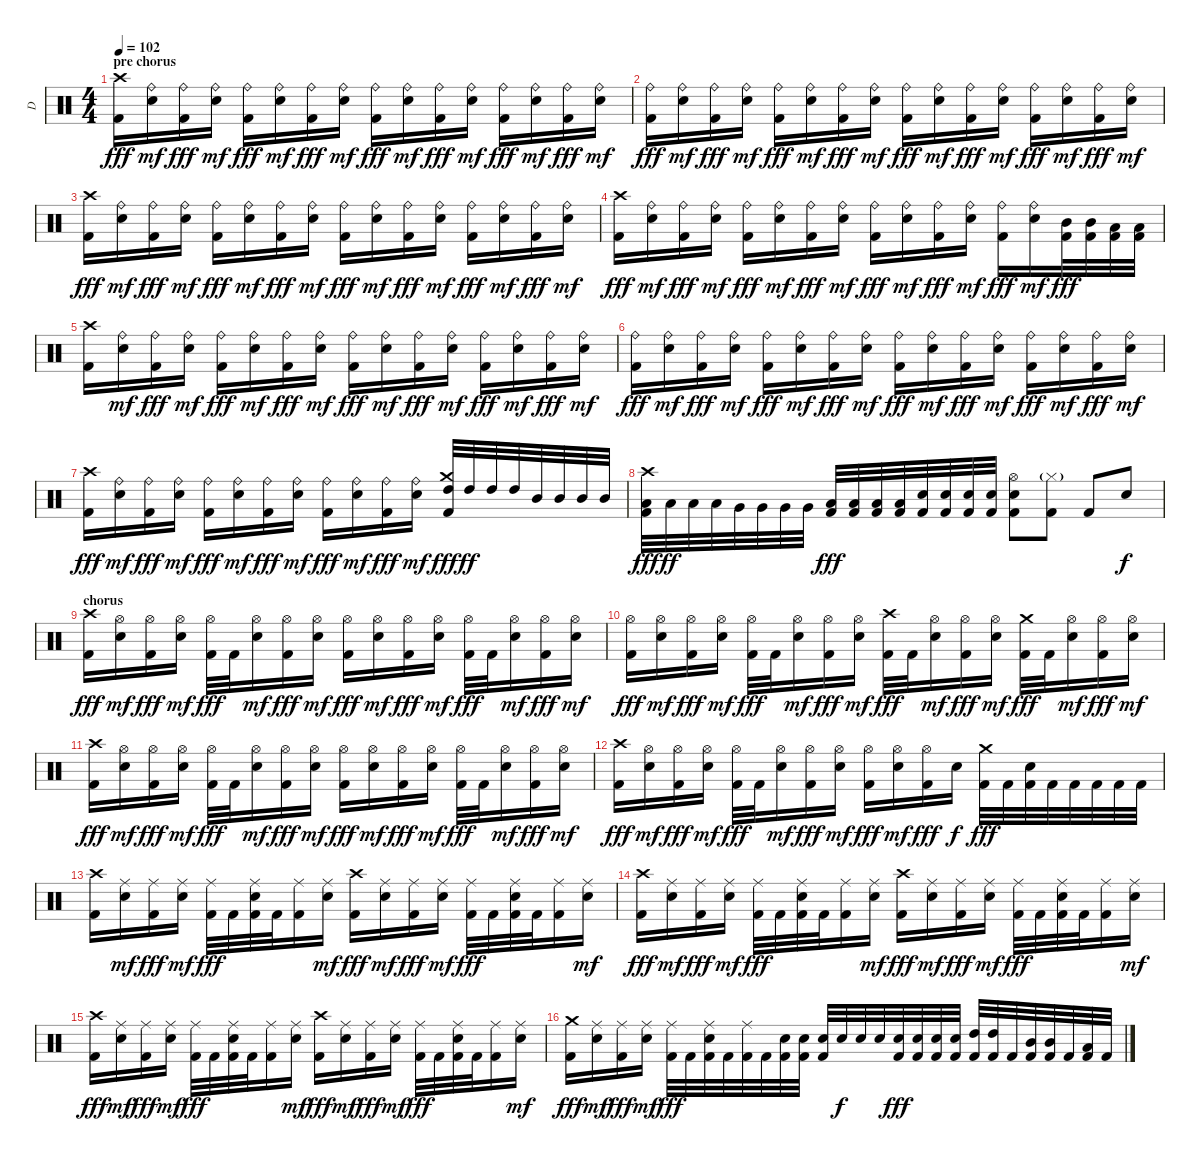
\track ("D" "D") {instrument percussion}
\staff {score}
\articulation defaults
\ts (4 4)
\section ("" "pre chorus")
\tempo 102
\clef neutral
\ks c
("Crash high (hit)" "Kick (hit) 2").16{dy fff} ("Ride (bell)" "Snare (hit) 2").16{dy mf} ("Ride (bell)" "Kick (hit) 2").16{dy fff} ("Ride (bell)" "Snare (hit) 2").16{dy mf} ("Ride (bell)" "Kick (hit) 2").16{dy fff} ("Ride (bell)" "Snare (hit) 2").16{dy mf} ("Ride (bell)" "Kick (hit) 2").16{dy fff} ("Ride (bell)" "Snare (hit) 2").16{dy mf} ("Ride (bell)" "Kick (hit) 2").16{dy fff} ("Ride (bell)" "Snare (hit) 2").16{dy mf} ("Ride (bell)" "Kick (hit) 2").16{dy fff} ("Ride (bell)" "Snare (hit) 2").16{dy mf} ("Ride (bell)" "Kick (hit) 2").16{dy fff} ("Ride (bell)" "Snare (hit) 2").16{dy mf} ("Ride (bell)" "Kick (hit) 2").16{dy fff} ("Ride (bell)" "Snare (hit) 2").16{dy mf} |
("Ride (bell)" "Kick (hit) 2").16{dy fff} ("Ride (bell)" "Snare (hit) 2").16{dy mf} ("Ride (bell)" "Kick (hit) 2").16{dy fff} ("Ride (bell)" "Snare (hit) 2").16{dy mf} ("Ride (bell)" "Kick (hit) 2").16{dy fff} ("Ride (bell)" "Snare (hit) 2").16{dy mf} ("Ride (bell)" "Kick (hit) 2").16{dy fff} ("Ride (bell)" "Snare (hit) 2").16{dy mf} ("Ride (bell)" "Kick (hit) 2").16{dy fff} ("Ride (bell)" "Snare (hit) 2").16{dy mf} ("Ride (bell)" "Kick (hit) 2").16{dy fff} ("Ride (bell)" "Snare (hit) 2").16{dy mf} ("Ride (bell)" "Kick (hit) 2").16{dy fff} ("Ride (bell)" "Snare (hit) 2").16{dy mf} ("Ride (bell)" "Kick (hit) 2").16{dy fff} ("Ride (bell)" "Snare (hit) 2").16{dy mf} |
("Crash high (hit)" "Kick (hit) 2").16{dy fff} ("Ride (bell)" "Snare (hit) 2").16{dy mf} ("Ride (bell)" "Kick (hit) 2").16{dy fff} ("Ride (bell)" "Snare (hit) 2").16{dy mf} ("Ride (bell)" "Kick (hit) 2").16{dy fff} ("Ride (bell)" "Snare (hit) 2").16{dy mf} ("Ride (bell)" "Kick (hit) 2").16{dy fff} ("Ride (bell)" "Snare (hit) 2").16{dy mf} ("Ride (bell)" "Kick (hit) 2").16{dy fff} ("Ride (bell)" "Snare (hit) 2").16{dy mf} ("Ride (bell)" "Kick (hit) 2").16{dy fff} ("Ride (bell)" "Snare (hit) 2").16{dy mf} ("Ride (bell)" "Kick (hit) 2").16{dy fff} ("Ride (bell)" "Snare (hit) 2").16{dy mf} ("Ride (bell)" "Kick (hit) 2").16{dy fff} ("Ride (bell)" "Snare (hit) 2").16{dy mf} |
("Crash high (hit)" "Kick (hit) 2").16{dy fff} ("Ride (bell)" "Snare (hit) 2").16{dy mf} ("Ride (bell)" "Kick (hit) 2").16{dy fff} ("Ride (bell)" "Snare (hit) 2").16{dy mf} ("Ride (bell)" "Kick (hit) 2").16{dy fff} ("Ride (bell)" "Snare (hit) 2").16{dy mf} ("Ride (bell)" "Kick (hit) 2").16{dy fff} ("Ride (bell)" "Snare (hit) 2").16{dy mf} ("Ride (bell)" "Kick (hit) 2").16{dy fff} ("Ride (bell)" "Snare (hit) 2").16{dy mf} ("Ride (bell)" "Kick (hit) 2").16{dy fff} ("Ride (bell)" "Snare (hit) 2").16{dy mf} ("Ride (bell)" "Kick (hit) 2").16{dy fff} ("Ride (bell)" "Snare (hit) 2").16{dy mf} ("Mid Tom (hit)" "Kick (hit) 2").32{dy fff} ("Mid Tom (hit)" "Kick (hit) 2").32 ("Low Tom (hit)" "Kick (hit) 2").32 ("Low Tom (hit)" "Kick (hit) 2").32 |
("Crash high (hit)" "Kick (hit) 2").16 ("Ride (bell)" "Snare (hit) 2").16{dy mf} ("Ride (bell)" "Kick (hit) 2").16{dy fff} ("Ride (bell)" "Snare (hit) 2").16{dy mf} ("Ride (bell)" "Kick (hit) 2").16{dy fff} ("Ride (bell)" "Snare (hit) 2").16{dy mf} ("Ride (bell)" "Kick (hit) 2").16{dy fff} ("Ride (bell)" "Snare (hit) 2").16{dy mf} ("Ride (bell)" "Kick (hit) 2").16{dy fff} ("Ride (bell)" "Snare (hit) 2").16{dy mf} ("Ride (bell)" "Kick (hit) 2").16{dy fff} ("Ride (bell)" "Snare (hit) 2").16{dy mf} ("Ride (bell)" "Kick (hit) 2").16{dy fff} ("Ride (bell)" "Snare (hit) 2").16{dy mf} ("Ride (bell)" "Kick (hit) 2").16{dy fff} ("Ride (bell)" "Snare (hit) 2").16{dy mf} |
("Ride (bell)" "Kick (hit) 2").16{dy fff} ("Ride (bell)" "Snare (hit) 2").16{dy mf} ("Ride (bell)" "Kick (hit) 2").16{dy fff} ("Ride (bell)" "Snare (hit) 2").16{dy mf} ("Ride (bell)" "Kick (hit) 2").16{dy fff} ("Ride (bell)" "Snare (hit) 2").16{dy mf} ("Ride (bell)" "Kick (hit) 2").16{dy fff} ("Ride (bell)" "Snare (hit) 2").16{dy mf} ("Ride (bell)" "Kick (hit) 2").16{dy fff} ("Ride (bell)" "Snare (hit) 2").16{dy mf} ("Ride (bell)" "Kick (hit) 2").16{dy fff} ("Ride (bell)" "Snare (hit) 2").16{dy mf} ("Ride (bell)" "Kick (hit) 2").16{dy fff} ("Ride (bell)" "Snare (hit) 2").16{dy mf} ("Ride (bell)" "Kick (hit) 2").16{dy fff} ("Ride (bell)" "Snare (hit) 2").16{dy mf} |
("Crash high (hit)" "Kick (hit) 2").16{dy fff} ("Ride (bell)" "Snare (hit) 2").16{dy mf} ("Ride (bell)" "Kick (hit) 2").16{dy fff} ("Ride (bell)" "Snare (hit) 2").16{dy mf} ("Ride (bell)" "Kick (hit) 2").16{dy fff} ("Ride (bell)" "Snare (hit) 2").16{dy mf} ("Ride (bell)" "Kick (hit) 2").16{dy fff} ("Ride (bell)" "Snare (hit) 2").16{dy mf} ("Ride (bell)" "Kick (hit) 2").16{dy fff} ("Ride (bell)" "Snare (hit) 2").16{dy mf} ("Ride (bell)" "Kick (hit) 2").16{dy fff} ("Ride (bell)" "Snare (hit) 2").16{dy mf} ("Crash medium (hit)" "High Tom (hit)" "Kick (hit) 2").32{dy fff} "High Tom (hit)".32{dy ff} "High Tom (hit)".32 "High Tom (hit)".32 "Mid Tom (hit)".32 "Mid Tom (hit)".32 "Mid Tom (hit)".32 "Mid Tom (hit)".32 |
("Crash high (hit)" "Low Tom (hit)" "Kick (hit) 2").32{dy fff} "Low Tom (hit)".32{dy ff} "Low Tom (hit)".32 "Low Tom (hit)".32 "Very Low Tom (hit)".32 "Very Low Tom (hit)".32 "Very Low Tom (hit)".32 "Very Low Tom (hit)".32 ("Low Floor Tom (hit)" "Kick (hit) 2").32{dy fff} ("Low Floor Tom (hit)" "Kick (hit) 2").32 ("Low Floor Tom (hit)" "Kick (hit) 2").32 ("Low Floor Tom (hit)" "Kick (hit) 2").32 ("Snare (hit) 2" "Kick (hit) 2").32 ("Snare (hit) 2" "Kick (hit) 2").32 ("Snare (hit) 2" "Kick (hit) 2").32 ("Snare (hit) 2" "Kick (hit) 2").32 ("Hi-Hat (open)" "Snare (hit) 2" "Kick (hit) 2").8 ("Hi-Hat (closed)"{g} "Kick (hit) 2").8 "Kick (hit) 2".8 "Snare (hit) 2".8{dy f} |
\section ("" "chorus")
("Crash high (hit)" "Kick (hit) 2").16{dy fff} ("Hi-Hat (open)" "Snare (hit) 2").16{dy mf} ("Hi-Hat (open)" "Kick (hit) 2").16{dy fff} ("Hi-Hat (open)" "Snare (hit) 2").16{dy mf} ("Hi-Hat (open)" "Kick (hit) 2").32{dy fff} "Kick (hit) 2".32 ("Hi-Hat (open)" "Snare (hit) 2").16{dy mf} ("Hi-Hat (open)" "Kick (hit) 2").16{dy fff} ("Hi-Hat (open)" "Snare (hit) 2").16{dy mf} ("Hi-Hat (open)" "Kick (hit) 2").16{dy fff} ("Hi-Hat (open)" "Snare (hit) 2").16{dy mf} ("Hi-Hat (open)" "Kick (hit) 2").16{dy fff} ("Hi-Hat (open)" "Snare (hit) 2").16{dy mf} ("Hi-Hat (open)" "Kick (hit) 2").32{dy fff} "Kick (hit) 2".32 ("Hi-Hat (open)" "Snare (hit) 2").16{dy mf} ("Hi-Hat (open)" "Kick (hit) 2").16{dy fff} ("Hi-Hat (open)" "Snare (hit) 2").16{dy mf} |
("Hi-Hat (open)" "Kick (hit) 2").16{dy fff} ("Hi-Hat (open)" "Snare (hit) 2").16{dy mf} ("Hi-Hat (open)" "Kick (hit) 2").16{dy fff} ("Hi-Hat (open)" "Snare (hit) 2").16{dy mf} ("Hi-Hat (open)" "Kick (hit) 2").32{dy fff} "Kick (hit) 2".32 ("Hi-Hat (open)" "Snare (hit) 2").16{dy mf} ("Hi-Hat (open)" "Kick (hit) 2").16{dy fff} ("Hi-Hat (open)" "Snare (hit) 2").16{dy mf} ("Crash high (hit)" "Kick (hit) 2").32{dy fff} "Kick (hit) 2".32 ("Hi-Hat (open)" "Snare (hit) 2").16{dy mf} ("Hi-Hat (open)" "Kick (hit) 2").16{dy fff} ("Hi-Hat (open)" "Snare (hit) 2").16{dy mf} ("Crash medium (hit)" "Kick (hit) 2").32{dy fff} "Kick (hit) 2".32 ("Hi-Hat (open)" "Snare (hit) 2").16{dy mf} ("Hi-Hat (open)" "Kick (hit) 2").16{dy fff} ("Hi-Hat (open)" "Snare (hit) 2").16{dy mf} |
("Crash high (hit)" "Kick (hit) 2").16{dy fff} ("Hi-Hat (open)" "Snare (hit) 2").16{dy mf} ("Hi-Hat (open)" "Kick (hit) 2").16{dy fff} ("Hi-Hat (open)" "Snare (hit) 2").16{dy mf} ("Hi-Hat (open)" "Kick (hit) 2").32{dy fff} "Kick (hit) 2".32 ("Hi-Hat (open)" "Snare (hit) 2").16{dy mf} ("Hi-Hat (open)" "Kick (hit) 2").16{dy fff} ("Hi-Hat (open)" "Snare (hit) 2").16{dy mf} ("Hi-Hat (open)" "Kick (hit) 2").16{dy fff} ("Hi-Hat (open)" "Snare (hit) 2").16{dy mf} ("Hi-Hat (open)" "Kick (hit) 2").16{dy fff} ("Hi-Hat (open)" "Snare (hit) 2").16{dy mf} ("Hi-Hat (open)" "Kick (hit) 2").32{dy fff} "Kick (hit) 2".32 ("Hi-Hat (open)" "Snare (hit) 2").16{dy mf} ("Hi-Hat (open)" "Kick (hit) 2").16{dy fff} ("Hi-Hat (open)" "Snare (hit) 2").16{dy mf} |
("Crash high (hit)" "Kick (hit) 2").16{dy fff} ("Hi-Hat (open)" "Snare (hit) 2").16{dy mf} ("Hi-Hat (open)" "Kick (hit) 2").16{dy fff} ("Hi-Hat (open)" "Snare (hit) 2").16{dy mf} ("Hi-Hat (open)" "Kick (hit) 2").32{dy fff} "Kick (hit) 2".32 ("Hi-Hat (open)" "Snare (hit) 2").16{dy mf} ("Hi-Hat (open)" "Kick (hit) 2").16{dy fff} ("Hi-Hat (open)" "Snare (hit) 2").16{dy mf} ("Hi-Hat (open)" "Kick (hit) 2").16{dy fff} ("Hi-Hat (open)" "Snare (hit) 2").16{dy mf} ("Hi-Hat (open)" "Kick (hit) 2").16{dy fff} "Snare (hit) 2".16{dy f} ("Crash medium (hit)" "Kick (hit) 2").32{dy fff} "Kick (hit) 2".32 ("Snare (hit) 2" "Kick (hit) 2").32 "Kick (hit) 2".32 "Kick (hit) 2".32 "Kick (hit) 2".32 "Kick (hit) 2".32 "Kick (hit) 2".32 |
("Crash high (hit)" "Kick (hit) 2").16 ("Ride (middle)" "Snare (hit) 2").16{dy mf} ("Ride (middle)" "Kick (hit) 2").16{dy fff} ("Ride (middle)" "Snare (hit) 2").16{dy mf} ("Ride (middle)" "Kick (hit) 2").32{dy fff} "Kick (hit) 2".32 ("Ride (middle)" "Snare (hit) 2" "Kick (hit) 2").32 "Kick (hit) 2".32 ("Ride (middle)" "Kick (hit) 2").16 ("Ride (middle)" "Snare (hit) 2").16{dy mf} ("Crash high (hit)" "Kick (hit) 2").16{dy fff} ("Ride (middle)" "Snare (hit) 2").16{dy mf} ("Ride (middle)" "Kick (hit) 2").16{dy fff} ("Ride (middle)" "Snare (hit) 2").16{dy mf} ("Ride (middle)" "Kick (hit) 2").32{dy fff} "Kick (hit) 2".32 ("Ride (middle)" "Snare (hit) 2" "Kick (hit) 2").32 "Kick (hit) 2".32 ("Ride (middle)" "Kick (hit) 2").16 ("Ride (middle)" "Snare (hit) 2").16{dy mf} |
("Crash high (hit)" "Kick (hit) 2").16{dy fff} ("Ride (middle)" "Snare (hit) 2").16{dy mf} ("Ride (middle)" "Kick (hit) 2").16{dy fff} ("Ride (middle)" "Snare (hit) 2").16{dy mf} ("Ride (middle)" "Kick (hit) 2").32{dy fff} "Kick (hit) 2".32 ("Ride (middle)" "Snare (hit) 2" "Kick (hit) 2").32 "Kick (hit) 2".32 ("Ride (middle)" "Kick (hit) 2").16 ("Ride (middle)" "Snare (hit) 2").16{dy mf} ("Crash high (hit)" "Kick (hit) 2").16{dy fff} ("Ride (middle)" "Snare (hit) 2").16{dy mf} ("Ride (middle)" "Kick (hit) 2").16{dy fff} ("Ride (middle)" "Snare (hit) 2").16{dy mf} ("Ride (middle)" "Kick (hit) 2").32{dy fff} "Kick (hit) 2".32 ("Ride (middle)" "Snare (hit) 2" "Kick (hit) 2").32 "Kick (hit) 2".32 ("Ride (middle)" "Kick (hit) 2").16 ("Ride (middle)" "Snare (hit) 2").16{dy mf} |
("Crash high (hit)" "Kick (hit) 2").16{dy fff} ("Ride (middle)" "Snare (hit) 2").16{dy mf} ("Ride (middle)" "Kick (hit) 2").16{dy fff} ("Ride (middle)" "Snare (hit) 2").16{dy mf} ("Ride (middle)" "Kick (hit) 2").32{dy fff} "Kick (hit) 2".32 ("Ride (middle)" "Snare (hit) 2" "Kick (hit) 2").32 "Kick (hit) 2".32 ("Ride (middle)" "Kick (hit) 2").16 ("Ride (middle)" "Snare (hit) 2").16{dy mf} ("Crash high (hit)" "Kick (hit) 2").16{dy fff} ("Ride (middle)" "Snare (hit) 2").16{dy mf} ("Ride (middle)" "Kick (hit) 2").16{dy fff} ("Ride (middle)" "Snare (hit) 2").16{dy mf} ("Ride (middle)" "Kick (hit) 2").32{dy fff} "Kick (hit) 2".32 ("Ride (middle)" "Snare (hit) 2" "Kick (hit) 2").32 "Kick (hit) 2".32 ("Ride (middle)" "Kick (hit) 2").16 ("Ride (middle)" "Snare (hit) 2").16{dy mf} |
("Crash medium (hit)" "Kick (hit) 2").16{dy fff} ("Ride (middle)" "Snare (hit) 2").16{dy mf} ("Ride (middle)" "Kick (hit) 2").16{dy fff} ("Ride (middle)" "Snare (hit) 2").16{dy mf} ("Ride (middle)" "Kick (hit) 2").32{dy fff} "Kick (hit) 2".32 ("Ride (middle)" "Snare (hit) 2" "Kick (hit) 2").32 "Kick (hit) 2".32 ("Ride (middle)" "Kick (hit) 2").32 "Kick (hit) 2".32 ("Snare (hit) 2" "Kick (hit) 2").32 ("Snare (hit) 2" "Kick (hit) 2").32 ("Snare (hit) 2" "Kick (hit) 2").32 "Snare (hit) 2".32{dy f} "Snare (hit) 2".32 "Snare (hit) 2".32 ("Snare (hit) 2" "Kick (hit) 2").32{dy fff} ("Snare (hit) 2" "Kick (hit) 2").32 ("Snare (hit) 2" "Kick (hit) 2").32 ("Snare (hit) 2" "Kick (hit) 2").32 ("High Tom (hit)" "Kick (hit) 2").32 ("High Tom (hit)" "Kick (hit) 2").32 "Kick (hit) 2".32 ("Mid Tom (hit)" "Kick (hit) 2").32 ("Mid Tom (hit)" "Kick (hit) 2").32 "Kick (hit) 2".32 ("Low Tom (hit)" "Kick (hit) 2").32 "Kick (hit) 2".32
